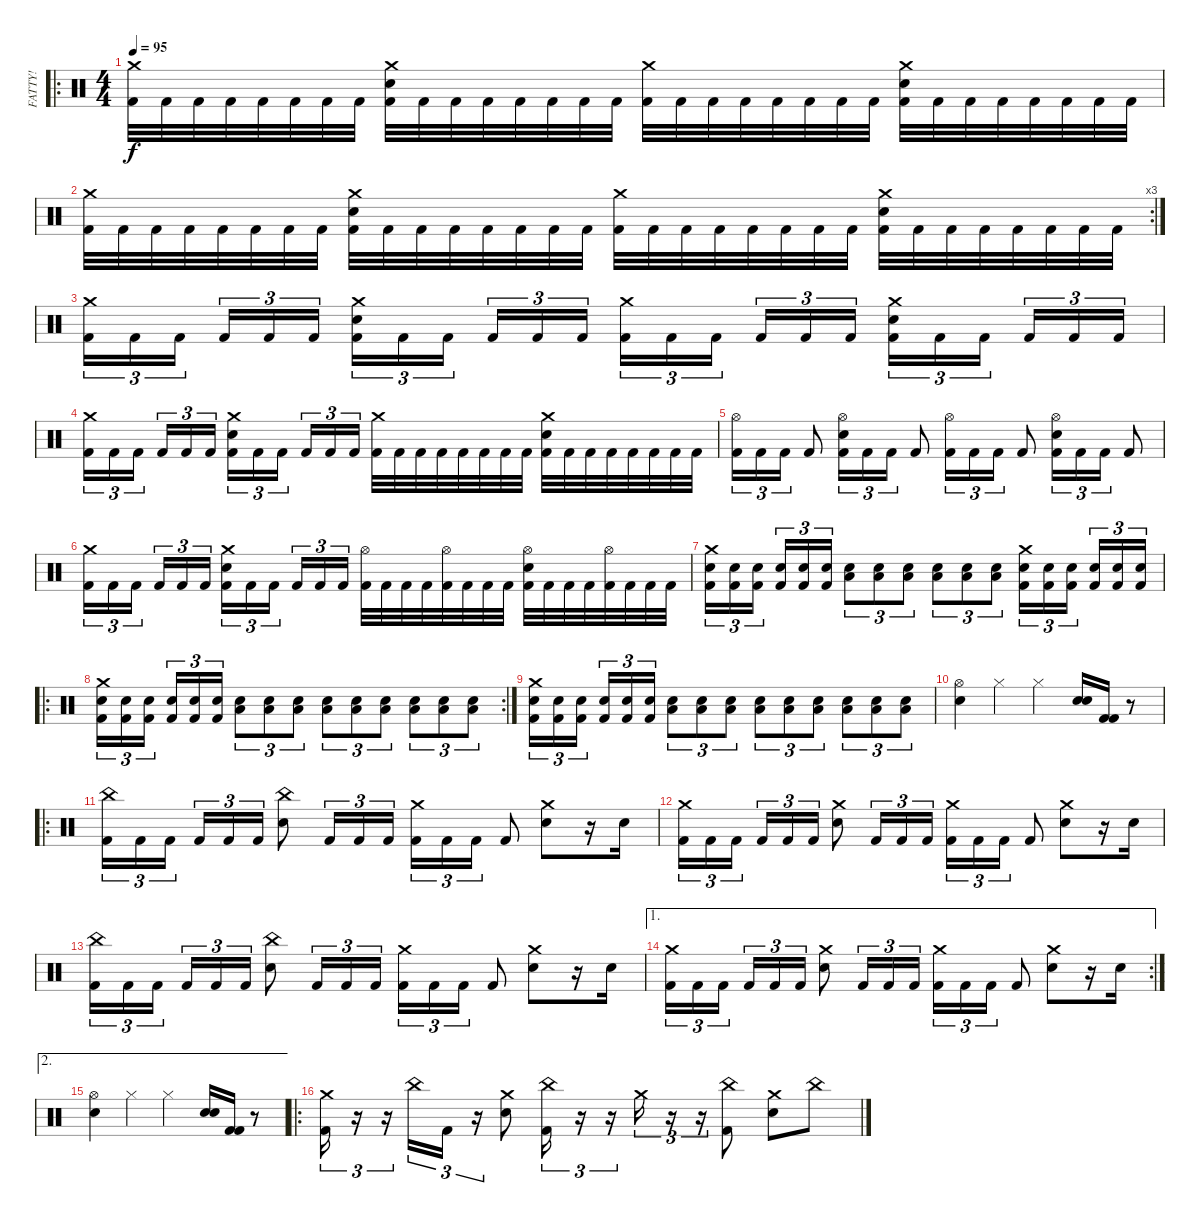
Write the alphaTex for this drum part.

\track ("FATTY!" "FATTY!") {instrument percussion}
\staff {score}
\articulation defaults
\ro
\ts (4 4)
\tempo 95
\clef neutral
\ks c
("Crash medium (hit)" "Kick (hit) 2").32{dy f} "Kick (hit) 2".32 "Kick (hit) 2".32 "Kick (hit) 2".32 "Kick (hit) 2".32 "Kick (hit) 2".32 "Kick (hit) 2".32 "Kick (hit) 2".32 ("Crash medium (hit)" "Electric Snare (hit)" "Kick (hit) 2").32 "Kick (hit) 2".32 "Kick (hit) 2".32 "Kick (hit) 2".32 "Kick (hit) 2".32 "Kick (hit) 2".32 "Kick (hit) 2".32 "Kick (hit) 2".32 ("Crash medium (hit)" "Kick (hit) 2").32 "Kick (hit) 2".32 "Kick (hit) 2".32 "Kick (hit) 2".32 "Kick (hit) 2".32 "Kick (hit) 2".32 "Kick (hit) 2".32 "Kick (hit) 2".32 ("Crash medium (hit)" "Electric Snare (hit)" "Kick (hit) 2").32 "Kick (hit) 2".32 "Kick (hit) 2".32 "Kick (hit) 2".32 "Kick (hit) 2".32 "Kick (hit) 2".32 "Kick (hit) 2".32 "Kick (hit) 2".32 |
\rc 3
("Crash medium (hit)" "Kick (hit) 2").32 "Kick (hit) 2".32 "Kick (hit) 2".32 "Kick (hit) 2".32 "Kick (hit) 2".32 "Kick (hit) 2".32 "Kick (hit) 2".32 "Kick (hit) 2".32 ("Crash medium (hit)" "Electric Snare (hit)" "Kick (hit) 2").32 "Kick (hit) 2".32 "Kick (hit) 2".32 "Kick (hit) 2".32 "Kick (hit) 2".32 "Kick (hit) 2".32 "Kick (hit) 2".32 "Kick (hit) 2".32 ("Crash medium (hit)" "Kick (hit) 2").32 "Kick (hit) 2".32 "Kick (hit) 2".32 "Kick (hit) 2".32 "Kick (hit) 2".32 "Kick (hit) 2".32 "Kick (hit) 2".32 "Kick (hit) 2".32 ("Crash medium (hit)" "Electric Snare (hit)" "Kick (hit) 2").32 "Kick (hit) 2".32 "Kick (hit) 2".32 "Kick (hit) 2".32 "Kick (hit) 2".32 "Kick (hit) 2".32 "Kick (hit) 2".32 "Kick (hit) 2".32 |
("Crash medium (hit)" "Kick (hit) 2").16{tu (3 2)} "Kick (hit) 2".16{tu (3 2)} "Kick (hit) 2".16{tu (3 2) beam splitsecondary} "Kick (hit) 2".16{tu (3 2)} "Kick (hit) 2".16{tu (3 2)} "Kick (hit) 2".16{tu (3 2)} ("Crash medium (hit)" "Electric Snare (hit)" "Kick (hit) 2").16{tu (3 2)} "Kick (hit) 2".16{tu (3 2)} "Kick (hit) 2".16{tu (3 2) beam splitsecondary} "Kick (hit) 2".16{tu (3 2)} "Kick (hit) 2".16{tu (3 2)} "Kick (hit) 2".16{tu (3 2)} ("Crash medium (hit)" "Kick (hit) 2").16{tu (3 2)} "Kick (hit) 2".16{tu (3 2)} "Kick (hit) 2".16{tu (3 2) beam splitsecondary} "Kick (hit) 2".16{tu (3 2)} "Kick (hit) 2".16{tu (3 2)} "Kick (hit) 2".16{tu (3 2)} ("Crash medium (hit)" "Electric Snare (hit)" "Kick (hit) 2").16{tu (3 2)} "Kick (hit) 2".16{tu (3 2)} "Kick (hit) 2".16{tu (3 2) beam splitsecondary} "Kick (hit) 2".16{tu (3 2)} "Kick (hit) 2".16{tu (3 2)} "Kick (hit) 2".16{tu (3 2)} |
("Crash medium (hit)" "Kick (hit) 2").16{tu (3 2)} "Kick (hit) 2".16{tu (3 2)} "Kick (hit) 2".16{tu (3 2) beam splitsecondary} "Kick (hit) 2".16{tu (3 2)} "Kick (hit) 2".16{tu (3 2)} "Kick (hit) 2".16{tu (3 2)} ("Crash medium (hit)" "Electric Snare (hit)" "Kick (hit) 2").16{tu (3 2)} "Kick (hit) 2".16{tu (3 2)} "Kick (hit) 2".16{tu (3 2) beam splitsecondary} "Kick (hit) 2".16{tu (3 2)} "Kick (hit) 2".16{tu (3 2)} "Kick (hit) 2".16{tu (3 2)} ("Crash medium (hit)" "Kick (hit) 2").32 "Kick (hit) 2".32 "Kick (hit) 2".32 "Kick (hit) 2".32 "Kick (hit) 2".32 "Kick (hit) 2".32 "Kick (hit) 2".32 "Kick (hit) 2".32 ("Crash medium (hit)" "Electric Snare (hit)" "Kick (hit) 2").32 "Kick (hit) 2".32 "Kick (hit) 2".32 "Kick (hit) 2".32 "Kick (hit) 2".32 "Kick (hit) 2".32 "Kick (hit) 2".32 "Kick (hit) 2".32 |
("Hi-Hat (open)" "Kick (hit) 2").16{tu (3 2)} "Kick (hit) 2".16{tu (3 2)} "Kick (hit) 2".16{tu (3 2)} "Kick (hit) 2".8 ("Hi-Hat (open)" "Electric Snare (hit)" "Kick (hit) 2").16{tu (3 2)} "Kick (hit) 2".16{tu (3 2)} "Kick (hit) 2".16{tu (3 2)} "Kick (hit) 2".8 ("Hi-Hat (open)" "Kick (hit) 2").16{tu (3 2)} "Kick (hit) 2".16{tu (3 2)} "Kick (hit) 2".16{tu (3 2)} "Kick (hit) 2".8 ("Hi-Hat (open)" "Electric Snare (hit)" "Kick (hit) 2").16{tu (3 2)} "Kick (hit) 2".16{tu (3 2)} "Kick (hit) 2".16{tu (3 2)} "Kick (hit) 2".8 |
("Crash medium (hit)" "Kick (hit) 2").16{tu (3 2)} "Kick (hit) 2".16{tu (3 2)} "Kick (hit) 2".16{tu (3 2) beam splitsecondary} "Kick (hit) 2".16{tu (3 2)} "Kick (hit) 2".16{tu (3 2)} "Kick (hit) 2".16{tu (3 2)} ("Crash medium (hit)" "Electric Snare (hit)" "Kick (hit) 2").16{tu (3 2)} "Kick (hit) 2".16{tu (3 2)} "Kick (hit) 2".16{tu (3 2) beam splitsecondary} "Kick (hit) 2".16{tu (3 2)} "Kick (hit) 2".16{tu (3 2)} "Kick (hit) 2".16{tu (3 2)} ("Hi-Hat (open)" "Kick (hit) 2").32 "Kick (hit) 2".32 "Kick (hit) 2".32 "Kick (hit) 2".32 ("Hi-Hat (open)" "Kick (hit) 2").32 "Kick (hit) 2".32 "Kick (hit) 2".32 "Kick (hit) 2".32 ("Hi-Hat (open)" "Electric Snare (hit)" "Kick (hit) 2").32 "Kick (hit) 2".32 "Kick (hit) 2".32 "Kick (hit) 2".32 ("Hi-Hat (open)" "Kick (hit) 2").32 "Kick (hit) 2".32 "Kick (hit) 2".32 "Kick (hit) 2".32 |
("Crash medium (hit)" "Electric Snare (hit)" "Kick (hit) 2").16{tu (3 2)} ("Electric Snare (hit)" "Kick (hit) 2").16{tu (3 2)} ("Electric Snare (hit)" "Kick (hit) 2").16{tu (3 2) beam splitsecondary} ("Electric Snare (hit)" "Kick (hit) 2").16{tu (3 2)} ("Electric Snare (hit)" "Kick (hit) 2").16{tu (3 2)} ("Electric Snare (hit)" "Kick (hit) 2").16{tu (3 2)} ("Electric Snare (hit)" "Low Tom (hit)").8{tu (3 2)} ("Electric Snare (hit)" "Low Tom (hit)").8{tu (3 2)} ("Electric Snare (hit)" "Low Tom (hit)").8{tu (3 2)} ("Electric Snare (hit)" "Low Tom (hit)").8{tu (3 2)} ("Electric Snare (hit)" "Low Tom (hit)").8{tu (3 2)} ("Electric Snare (hit)" "Low Tom (hit)").8{tu (3 2)} ("Crash medium (hit)" "Electric Snare (hit)" "Kick (hit) 2").16{tu (3 2)} ("Electric Snare (hit)" "Kick (hit) 2").16{tu (3 2)} ("Electric Snare (hit)" "Kick (hit) 2").16{tu (3 2) beam splitsecondary} ("Electric Snare (hit)" "Kick (hit) 2").16{tu (3 2)} ("Electric Snare (hit)" "Kick (hit) 2").16{tu (3 2)} ("Electric Snare (hit)" "Kick (hit) 2").16{tu (3 2)} |
\ro
\rc 2
("Crash medium (hit)" "Electric Snare (hit)" "Kick (hit) 2").16{tu (3 2)} ("Electric Snare (hit)" "Kick (hit) 2").16{tu (3 2)} ("Electric Snare (hit)" "Kick (hit) 2").16{tu (3 2) beam splitsecondary} ("Electric Snare (hit)" "Kick (hit) 2").16{tu (3 2)} ("Electric Snare (hit)" "Kick (hit) 2").16{tu (3 2)} ("Electric Snare (hit)" "Kick (hit) 2").16{tu (3 2)} ("Electric Snare (hit)" "Low Tom (hit)").8{tu (3 2)} ("Electric Snare (hit)" "Low Tom (hit)").8{tu (3 2)} ("Electric Snare (hit)" "Low Tom (hit)").8{tu (3 2)} ("Electric Snare (hit)" "Low Tom (hit)").8{tu (3 2)} ("Electric Snare (hit)" "Low Tom (hit)").8{tu (3 2)} ("Electric Snare (hit)" "Low Tom (hit)").8{tu (3 2)} ("Electric Snare (hit)" "Low Tom (hit)").8{tu (3 2)} ("Electric Snare (hit)" "Low Tom (hit)").8{tu (3 2)} ("Electric Snare (hit)" "Low Tom (hit)").8{tu (3 2)} |
("Crash medium (hit)" "Electric Snare (hit)" "Kick (hit) 2").16{tu (3 2)} ("Electric Snare (hit)" "Kick (hit) 2").16{tu (3 2)} ("Electric Snare (hit)" "Kick (hit) 2").16{tu (3 2) beam splitsecondary} ("Electric Snare (hit)" "Kick (hit) 2").16{tu (3 2)} ("Electric Snare (hit)" "Kick (hit) 2").16{tu (3 2)} ("Electric Snare (hit)" "Kick (hit) 2").16{tu (3 2)} ("Electric Snare (hit)" "Low Tom (hit)").8{tu (3 2)} ("Electric Snare (hit)" "Low Tom (hit)").8{tu (3 2)} ("Electric Snare (hit)" "Low Tom (hit)").8{tu (3 2)} ("Electric Snare (hit)" "Low Tom (hit)").8{tu (3 2)} ("Electric Snare (hit)" "Low Tom (hit)").8{tu (3 2)} ("Electric Snare (hit)" "Low Tom (hit)").8{tu (3 2)} ("Electric Snare (hit)" "Low Tom (hit)").8{tu (3 2)} ("Electric Snare (hit)" "Low Tom (hit)").8{tu (3 2)} ("Electric Snare (hit)" "Low Tom (hit)").8{tu (3 2)} |
("Hi-Hat (open)" "Electric Snare (hit)").4 "Hi-Hat (closed)".4 "Hi-Hat (closed)".4 ("Electric Snare (hit)" "Electric Snare (hit)").16 ("Kick (hit) 2" "Kick (hit) 2").16 r.8 |
\ro
("China (hit)" "Kick (hit) 2").16{tu (3 2)} "Kick (hit) 2".16{tu (3 2)} "Kick (hit) 2".16{tu (3 2) beam splitsecondary} "Kick (hit) 2".16{tu (3 2)} "Kick (hit) 2".16{tu (3 2)} "Kick (hit) 2".16{tu (3 2)} ("China (hit)" "Electric Snare (hit)").8 "Kick (hit) 2".16{tu (3 2)} "Kick (hit) 2".16{tu (3 2)} "Kick (hit) 2".16{tu (3 2)} ("Crash medium (hit)" "Kick (hit) 2").16{tu (3 2)} "Kick (hit) 2".16{tu (3 2)} "Kick (hit) 2".16{tu (3 2)} "Kick (hit) 2".8 ("Crash medium (hit)" "Electric Snare (hit)").8 r.16 "Electric Snare (hit)".16 |
("Crash medium (hit)" "Kick (hit) 2").16{tu (3 2)} "Kick (hit) 2".16{tu (3 2)} "Kick (hit) 2".16{tu (3 2) beam splitsecondary} "Kick (hit) 2".16{tu (3 2)} "Kick (hit) 2".16{tu (3 2)} "Kick (hit) 2".16{tu (3 2)} ("Crash medium (hit)" "Electric Snare (hit)").8 "Kick (hit) 2".16{tu (3 2)} "Kick (hit) 2".16{tu (3 2)} "Kick (hit) 2".16{tu (3 2)} ("Crash medium (hit)" "Kick (hit) 2").16{tu (3 2)} "Kick (hit) 2".16{tu (3 2)} "Kick (hit) 2".16{tu (3 2)} "Kick (hit) 2".8 ("Crash medium (hit)" "Electric Snare (hit)").8 r.16 "Electric Snare (hit)".16 |
("China (hit)" "Kick (hit) 2").16{tu (3 2)} "Kick (hit) 2".16{tu (3 2)} "Kick (hit) 2".16{tu (3 2) beam splitsecondary} "Kick (hit) 2".16{tu (3 2)} "Kick (hit) 2".16{tu (3 2)} "Kick (hit) 2".16{tu (3 2)} ("China (hit)" "Electric Snare (hit)").8 "Kick (hit) 2".16{tu (3 2)} "Kick (hit) 2".16{tu (3 2)} "Kick (hit) 2".16{tu (3 2)} ("Crash medium (hit)" "Kick (hit) 2").16{tu (3 2)} "Kick (hit) 2".16{tu (3 2)} "Kick (hit) 2".16{tu (3 2)} "Kick (hit) 2".8 ("Crash medium (hit)" "Electric Snare (hit)").8 r.16 "Electric Snare (hit)".16 |
\ae 1
\rc 2
("Crash medium (hit)" "Kick (hit) 2").16{tu (3 2)} "Kick (hit) 2".16{tu (3 2)} "Kick (hit) 2".16{tu (3 2) beam splitsecondary} "Kick (hit) 2".16{tu (3 2)} "Kick (hit) 2".16{tu (3 2)} "Kick (hit) 2".16{tu (3 2)} ("Crash medium (hit)" "Electric Snare (hit)").8 "Kick (hit) 2".16{tu (3 2)} "Kick (hit) 2".16{tu (3 2)} "Kick (hit) 2".16{tu (3 2)} ("Crash medium (hit)" "Kick (hit) 2").16{tu (3 2)} "Kick (hit) 2".16{tu (3 2)} "Kick (hit) 2".16{tu (3 2)} "Kick (hit) 2".8 ("Crash medium (hit)" "Electric Snare (hit)").8 r.16 "Electric Snare (hit)".16 |
\ae 2
("Hi-Hat (open)" "Electric Snare (hit)").4 "Hi-Hat (closed)".4 "Hi-Hat (closed)".4 ("Electric Snare (hit)" "Electric Snare (hit)").16 ("Kick (hit) 2" "Kick (hit) 2").16 r.8 |
\ro
("Crash medium (hit)" "Kick (hit) 2").16{tu (3 2)} r.16{tu (3 2)} r.16{tu (3 2)} "China (hit)".16{tu (3 2)} "Kick (hit) 2".16{tu (3 2)} r.16{tu (3 2)} ("Crash medium (hit)" "Electric Snare (hit)").8 ("China (hit)" "Kick (hit) 2").16{tu (3 2)} r.16{tu (3 2)} r.16{tu (3 2)} "Crash medium (hit)".16{tu (3 2)} r.16{tu (3 2)} r.16{tu (3 2)} ("China (hit)" "Kick (hit) 2").8 ("Crash medium (hit)" "Electric Snare (hit)").8 "China (hit)".8
